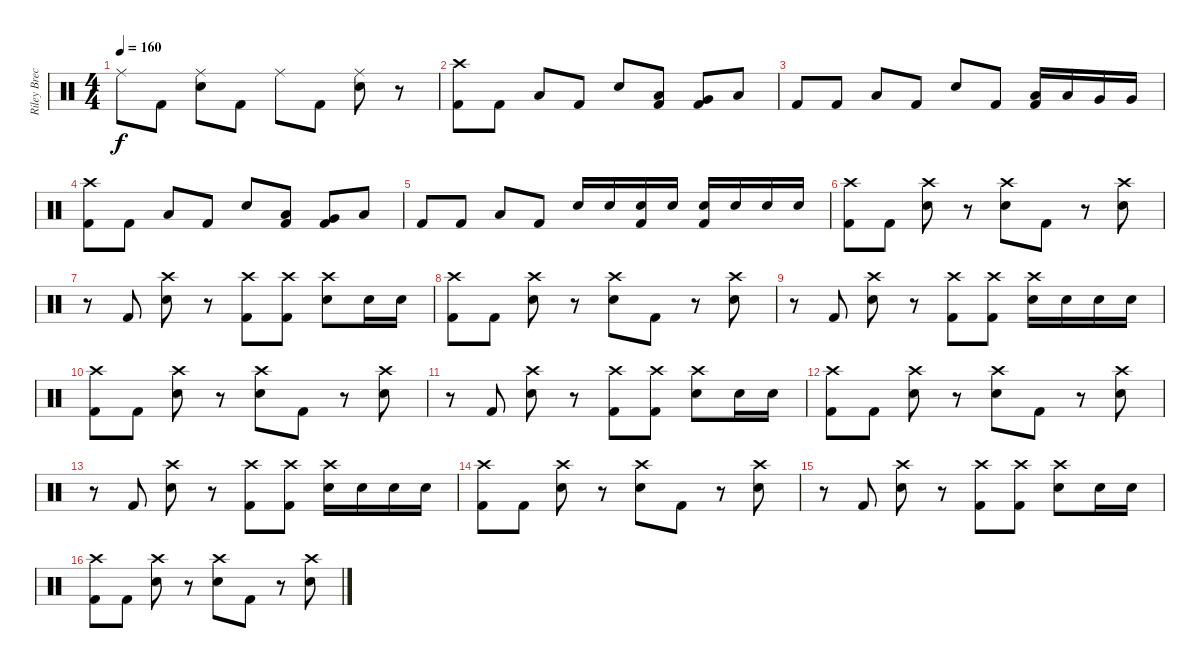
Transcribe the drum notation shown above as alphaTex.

\track ("Riley Breckenridge" "Riley Brec") {instrument percussion}
\staff {score}
\articulation defaults
\ts (4 4)
\tempo 160
\clef neutral
\ks c "Ride (middle)".8{dy f} "Kick (hit) 2".8
("Electric Snare (hit)" "Ride (middle)").8 "Kick (hit) 2".8 "Ride (middle)".8 "Kick (hit) 2".8 ("Electric Snare (hit)" "Ride (middle)").8 r.8 |
("Kick (hit) 2" "Crash high (hit)").8 "Kick (hit) 2".8 "Low Floor Tom (hit)".8 "Kick (hit) 2".8 "Electric Snare (hit)".8 ("Kick (hit) 2" "Low Floor Tom (hit)").8 ("Kick (hit) 2" "Very Low Tom (hit)").8 "Low Tom (hit)".8 |
"Kick (hit) 2".8 "Kick (hit) 2".8 "Low Floor Tom (hit)".8 "Kick (hit) 2".8 "Electric Snare (hit)".8 "Kick (hit) 2".8 ("Kick (hit) 2" "Low Tom (hit)").16 "Low Tom (hit)".16 "Very Low Tom (hit)".16 "Very Low Tom (hit)".16 |
("Kick (hit) 2" "Crash high (hit)").8 "Kick (hit) 2".8 "Low Floor Tom (hit)".8 "Kick (hit) 2".8 "Electric Snare (hit)".8 ("Kick (hit) 2" "Low Floor Tom (hit)").8 ("Kick (hit) 2" "Very Low Tom (hit)").8 "Low Tom (hit)".8 |
"Kick (hit) 2".8 "Kick (hit) 2".8 "Low Floor Tom (hit)".8 "Kick (hit) 2".8 "Electric Snare (hit)".16 "Electric Snare (hit)".16 ("Kick (hit) 2" "Electric Snare (hit)").16 "Electric Snare (hit)".16 ("Kick (hit) 2" "Electric Snare (hit)").16 "Electric Snare (hit)".16 "Electric Snare (hit)".16 "Electric Snare (hit)".16 |
("Kick (hit) 2" "Crash high (hit)").8 "Kick (hit) 2".8 ("Electric Snare (hit)" "Crash high (hit)").8 r.8 ("Electric Snare (hit)" "Crash high (hit)").8 "Kick (hit) 2".8 r.8 ("Electric Snare (hit)" "Crash high (hit)").8 |
r.8 "Kick (hit) 2".8 ("Electric Snare (hit)" "Crash high (hit)").8 r.8 ("Kick (hit) 2" "Crash high (hit)").8 ("Kick (hit) 2" "Crash high (hit)").8 ("Electric Snare (hit)" "Crash high (hit)").8 "Electric Snare (hit)".16 "Electric Snare (hit)".16 |
("Kick (hit) 2" "Crash high (hit)").8 "Kick (hit) 2".8 ("Electric Snare (hit)" "Crash high (hit)").8 r.8 ("Electric Snare (hit)" "Crash high (hit)").8 "Kick (hit) 2".8 r.8 ("Electric Snare (hit)" "Crash high (hit)").8 |
r.8 "Kick (hit) 2".8 ("Electric Snare (hit)" "Crash high (hit)").8 r.8 ("Kick (hit) 2" "Crash high (hit)").8 ("Kick (hit) 2" "Crash high (hit)").8 ("Electric Snare (hit)" "Crash high (hit)").16 "Electric Snare (hit)".16 "Electric Snare (hit)".16 "Electric Snare (hit)".16 |
("Kick (hit) 2" "Crash high (hit)").8 "Kick (hit) 2".8 ("Electric Snare (hit)" "Crash high (hit)").8 r.8 ("Electric Snare (hit)" "Crash high (hit)").8 "Kick (hit) 2".8 r.8 ("Electric Snare (hit)" "Crash high (hit)").8 |
r.8 "Kick (hit) 2".8 ("Electric Snare (hit)" "Crash high (hit)").8 r.8 ("Kick (hit) 2" "Crash high (hit)").8 ("Kick (hit) 2" "Crash high (hit)").8 ("Electric Snare (hit)" "Crash high (hit)").8 "Electric Snare (hit)".16 "Electric Snare (hit)".16 |
("Kick (hit) 2" "Crash high (hit)").8 "Kick (hit) 2".8 ("Electric Snare (hit)" "Crash high (hit)").8 r.8 ("Electric Snare (hit)" "Crash high (hit)").8 "Kick (hit) 2".8 r.8 ("Electric Snare (hit)" "Crash high (hit)").8 |
r.8 "Kick (hit) 2".8 ("Electric Snare (hit)" "Crash high (hit)").8 r.8 ("Kick (hit) 2" "Crash high (hit)").8 ("Kick (hit) 2" "Crash high (hit)").8 ("Electric Snare (hit)" "Crash high (hit)").16 "Electric Snare (hit)".16 "Electric Snare (hit)".16 "Electric Snare (hit)".16 |
("Kick (hit) 2" "Crash high (hit)").8 "Kick (hit) 2".8 ("Electric Snare (hit)" "Crash high (hit)").8 r.8 ("Electric Snare (hit)" "Crash high (hit)").8 "Kick (hit) 2".8 r.8 ("Electric Snare (hit)" "Crash high (hit)").8 |
r.8 "Kick (hit) 2".8 ("Electric Snare (hit)" "Crash high (hit)").8 r.8 ("Kick (hit) 2" "Crash high (hit)").8 ("Kick (hit) 2" "Crash high (hit)").8 ("Electric Snare (hit)" "Crash high (hit)").8 "Electric Snare (hit)".16 "Electric Snare (hit)".16 |
("Kick (hit) 2" "Crash high (hit)").8 "Kick (hit) 2".8 ("Electric Snare (hit)" "Crash high (hit)").8 r.8 ("Electric Snare (hit)" "Crash high (hit)").8 "Kick (hit) 2".8 r.8 ("Electric Snare (hit)" "Crash high (hit)").8
